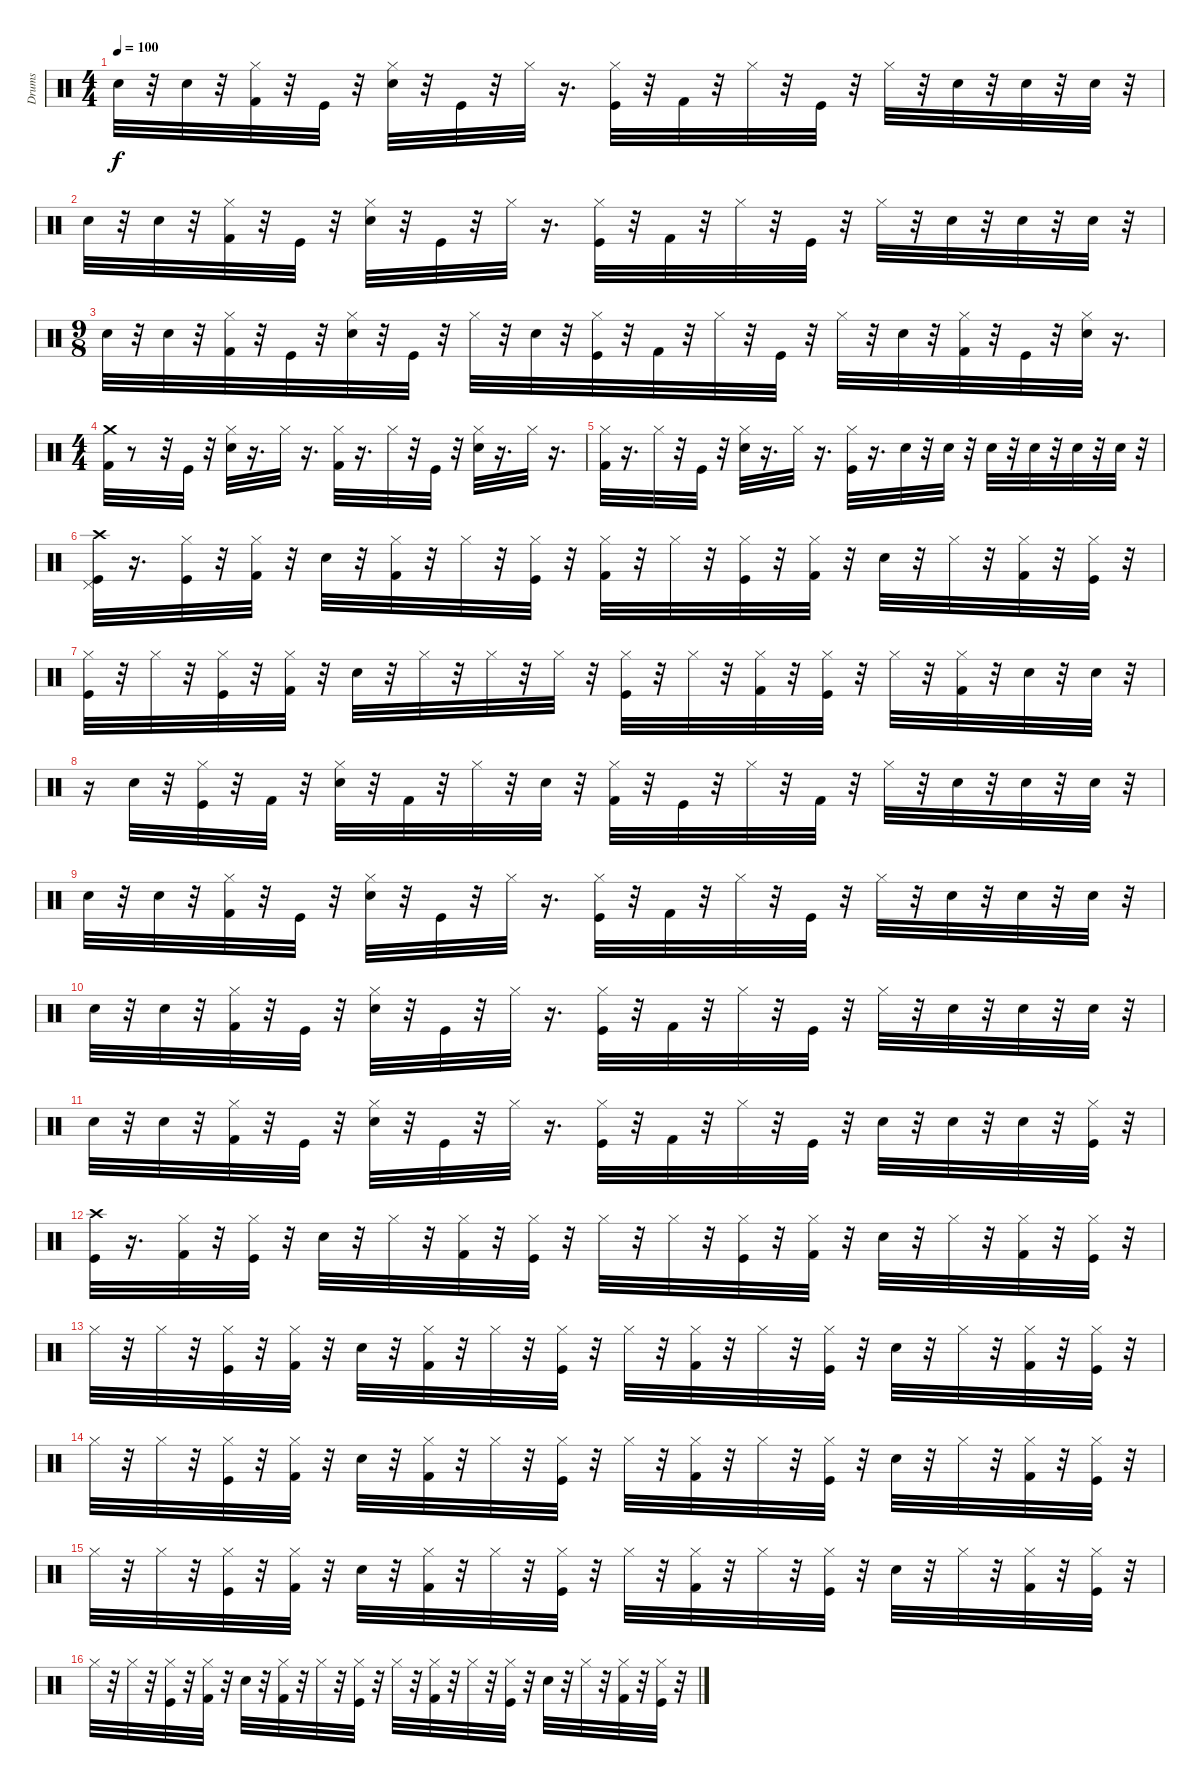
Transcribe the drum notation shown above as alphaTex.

\track ("Drums" "Drums") {instrument percussion}
\staff {score}
\articulation defaults
\ts (4 4)
\tempo 100
\clef neutral
\ks c "Snare (hit) 2".32{dy f}
r.32 "Snare (hit) 2".32 r.32 ("Kick (hit) 2" "Hi-Hat (closed)").32 r.32 "Kick (hit)".32 r.32 ("Electric Snare (hit)" "Hi-Hat (closed)").32 r.32 "Kick (hit)".32 r.32 "Hi-Hat (closed)".32 r.16{d} ("Kick (hit)" "Hi-Hat (closed)").32 r.32 "Kick (hit) 2".32 r.32 "Hi-Hat (closed)".32 r.32 "Kick (hit)".32 r.32 "Hi-Hat (closed)".32 r.32 "Electric Snare (hit)".32 r.32 "Electric Snare (hit)".32 r.32 "Electric Snare (hit)".32 r.32 |
"Snare (hit) 2".32 r.32 "Snare (hit) 2".32 r.32 ("Kick (hit) 2" "Hi-Hat (closed)").32 r.32 "Kick (hit)".32 r.32 ("Electric Snare (hit)" "Hi-Hat (closed)").32 r.32 "Kick (hit)".32 r.32 "Hi-Hat (closed)".32 r.16{d} ("Kick (hit)" "Hi-Hat (closed)").32 r.32 "Kick (hit) 2".32 r.32 "Hi-Hat (closed)".32 r.32 "Kick (hit)".32 r.32 "Hi-Hat (closed)".32 r.32 "Electric Snare (hit)".32 r.32 "Electric Snare (hit)".32 r.32 "Electric Snare (hit)".32 r.32 |
\ts (9 8)
"Snare (hit) 2".32 r.32 "Snare (hit) 2".32 r.32 ("Kick (hit) 2" "Hi-Hat (closed)").32 r.32 "Kick (hit)".32 r.32 ("Electric Snare (hit)" "Hi-Hat (closed)").32 r.32 "Kick (hit)".32 r.32 "Hi-Hat (closed)".32 r.32 "Electric Snare (hit)".32 r.32 ("Kick (hit)" "Hi-Hat (closed)").32 r.32 "Kick (hit) 2".32 r.32 "Hi-Hat (closed)".32 r.32 "Kick (hit)".32 r.32 "Hi-Hat (closed)".32 r.32 "Electric Snare (hit)".32 r.32 ("Hi-Hat (closed)" "Kick (hit) 2").32 r.32 "Kick (hit)".32 r.32 ("Hi-Hat (closed)" "Electric Snare (hit)").32 r.16{d} |
\ts (4 4)
("Kick (hit) 2" "Crash medium (hit)").32 r.8 r.32 "Kick (hit)".32 r.32 ("Electric Snare (hit)" "Hi-Hat (closed)").32 r.16{d} "Hi-Hat (closed)".32 r.16{d} ("Kick (hit) 2" "Hi-Hat (closed)").32 r.16{d} "Hi-Hat (closed)".32 r.32 "Kick (hit)".32 r.32 ("Electric Snare (hit)" "Hi-Hat (closed)").32 r.16{d} "Hi-Hat (closed)".32 r.16{d} |
("Hi-Hat (closed)" "Kick (hit) 2").32 r.16{d} "Hi-Hat (closed)".32 r.32 "Kick (hit)".32 r.32 ("Hi-Hat (closed)" "Electric Snare (hit)").32 r.16{d} "Hi-Hat (closed)".32 r.16{d} ("Hi-Hat (closed)" "Kick (hit)").32 r.16{d} "Electric Snare (hit)".32 r.32 "Electric Snare (hit)".32 r.32 "Electric Snare (hit)".32 r.32 "Electric Snare (hit)".32 r.32 "Electric Snare (hit)".32 r.32 "Electric Snare (hit)".32 r.32 |
("Kick (hit)" "Pedal Hi-Hat (hit)" "Crash high (hit)").32 r.16{d} ("Kick (hit)" "Hi-Hat (closed)").32 r.32 ("Kick (hit) 2" "Hi-Hat (closed)").32 r.32 "Electric Snare (hit)".32 r.32 ("Kick (hit) 2" "Hi-Hat (closed)").32 r.32 "Hi-Hat (closed)".32 r.32 ("Kick (hit)" "Hi-Hat (closed)").32 r.32 ("Kick (hit) 2" "Hi-Hat (closed)").32 r.32 "Hi-Hat (closed)".32 r.32 ("Kick (hit)" "Hi-Hat (closed)").32 r.32 ("Kick (hit) 2" "Hi-Hat (closed)").32 r.32 "Electric Snare (hit)".32 r.32 "Hi-Hat (closed)".32 r.32 ("Kick (hit) 2" "Hi-Hat (closed)").32 r.32 ("Kick (hit)" "Hi-Hat (closed)").32 r.32 |
("Hi-Hat (closed)" "Kick (hit)").32 r.32 "Hi-Hat (closed)".32 r.32 ("Hi-Hat (closed)" "Kick (hit)").32 r.32 ("Hi-Hat (closed)" "Kick (hit) 2").32 r.32 "Electric Snare (hit)".32 r.32 "Hi-Hat (closed)".32 r.32 "Hi-Hat (closed)".32 r.32 "Hi-Hat (closed)".32 r.32 ("Hi-Hat (closed)" "Kick (hit)").32 r.32 "Hi-Hat (closed)".32 r.32 ("Hi-Hat (closed)" "Kick (hit) 2").32 r.32 ("Hi-Hat (closed)" "Kick (hit)").32 r.32 "Hi-Hat (closed)".32 r.32 ("Hi-Hat (closed)" "Kick (hit) 2").32 r.32 "Electric Snare (hit)".32 r.32 "Electric Snare (hit)".32 r.32 |
r.16 "Electric Snare (hit)".32 r.32 ("Kick (hit)" "Hi-Hat (closed)").32 r.32 "Kick (hit) 2".32 r.32 ("Electric Snare (hit)" "Hi-Hat (closed)").32 r.32 "Kick (hit) 2".32 r.32 "Hi-Hat (closed)".32 r.32 "Electric Snare (hit)".32 r.32 ("Kick (hit) 2" "Hi-Hat (closed)").32 r.32 "Kick (hit)".32 r.32 "Hi-Hat (closed)".32 r.32 "Kick (hit) 2".32 r.32 "Hi-Hat (closed)".32 r.32 "Electric Snare (hit)".32 r.32 "Electric Snare (hit)".32 r.32 "Electric Snare (hit)".32 r.32 |
"Snare (hit) 2".32 r.32 "Snare (hit) 2".32 r.32 ("Kick (hit) 2" "Hi-Hat (closed)").32 r.32 "Kick (hit)".32 r.32 ("Electric Snare (hit)" "Hi-Hat (closed)").32 r.32 "Kick (hit)".32 r.32 "Hi-Hat (closed)".32 r.16{d} ("Kick (hit)" "Hi-Hat (closed)").32 r.32 "Kick (hit) 2".32 r.32 "Hi-Hat (closed)".32 r.32 "Kick (hit)".32 r.32 "Hi-Hat (closed)".32 r.32 "Electric Snare (hit)".32 r.32 "Electric Snare (hit)".32 r.32 "Electric Snare (hit)".32 r.32 |
"Snare (hit) 2".32 r.32 "Snare (hit) 2".32 r.32 ("Kick (hit) 2" "Hi-Hat (closed)").32 r.32 "Kick (hit)".32 r.32 ("Electric Snare (hit)" "Hi-Hat (closed)").32 r.32 "Kick (hit)".32 r.32 "Hi-Hat (closed)".32 r.16{d} ("Kick (hit)" "Hi-Hat (closed)").32 r.32 "Kick (hit) 2".32 r.32 "Hi-Hat (closed)".32 r.32 "Kick (hit)".32 r.32 "Hi-Hat (closed)".32 r.32 "Electric Snare (hit)".32 r.32 "Electric Snare (hit)".32 r.32 "Electric Snare (hit)".32 r.32 |
"Snare (hit) 2".32 r.32 "Snare (hit) 2".32 r.32 ("Kick (hit) 2" "Hi-Hat (closed)").32 r.32 "Kick (hit)".32 r.32 ("Electric Snare (hit)" "Hi-Hat (closed)").32 r.32 "Kick (hit)".32 r.32 "Hi-Hat (closed)".32 r.16{d} ("Kick (hit)" "Hi-Hat (closed)").32 r.32 "Kick (hit) 2".32 r.32 "Hi-Hat (closed)".32 r.32 "Kick (hit)".32 r.32 "Electric Snare (hit)".32 r.32 "Electric Snare (hit)".32 r.32 "Electric Snare (hit)".32 r.32 ("Hi-Hat (closed)" "Kick (hit)").32 r.32 |
("Kick (hit)" "Crash high (hit)").32 r.16{d} ("Kick (hit) 2" "Hi-Hat (closed)").32 r.32 ("Kick (hit)" "Hi-Hat (closed)").32 r.32 "Electric Snare (hit)".32 r.32 "Hi-Hat (closed)".32 r.32 ("Kick (hit) 2" "Hi-Hat (closed)").32 r.32 ("Kick (hit)" "Hi-Hat (closed)").32 r.32 "Hi-Hat (closed)".32 r.32 "Hi-Hat (closed)".32 r.32 ("Kick (hit)" "Hi-Hat (closed)").32 r.32 ("Kick (hit) 2" "Hi-Hat (closed)").32 r.32 "Electric Snare (hit)".32 r.32 "Hi-Hat (closed)".32 r.32 ("Kick (hit) 2" "Hi-Hat (closed)").32 r.32 ("Kick (hit)" "Hi-Hat (closed)").32 r.32 |
"Hi-Hat (closed)".32 r.32 "Hi-Hat (closed)".32 r.32 ("Hi-Hat (closed)" "Kick (hit)").32 r.32 ("Hi-Hat (closed)" "Kick (hit) 2").32 r.32 "Electric Snare (hit)".32 r.32 ("Hi-Hat (closed)" "Kick (hit) 2").32 r.32 "Hi-Hat (closed)".32 r.32 ("Hi-Hat (closed)" "Kick (hit)").32 r.32 "Hi-Hat (closed)".32 r.32 ("Hi-Hat (closed)" "Kick (hit) 2").32 r.32 "Hi-Hat (closed)".32 r.32 ("Hi-Hat (closed)" "Kick (hit)").32 r.32 "Electric Snare (hit)".32 r.32 "Hi-Hat (closed)".32 r.32 ("Hi-Hat (closed)" "Kick (hit) 2").32 r.32 ("Hi-Hat (closed)" "Kick (hit)").32 r.32 |
"Hi-Hat (closed)".32 r.32 "Hi-Hat (closed)".32 r.32 ("Hi-Hat (closed)" "Kick (hit)").32 r.32 ("Hi-Hat (closed)" "Kick (hit) 2").32 r.32 "Electric Snare (hit)".32 r.32 ("Hi-Hat (closed)" "Kick (hit) 2").32 r.32 "Hi-Hat (closed)".32 r.32 ("Hi-Hat (closed)" "Kick (hit)").32 r.32 "Hi-Hat (closed)".32 r.32 ("Hi-Hat (closed)" "Kick (hit) 2").32 r.32 "Hi-Hat (closed)".32 r.32 ("Hi-Hat (closed)" "Kick (hit)").32 r.32 "Electric Snare (hit)".32 r.32 "Hi-Hat (closed)".32 r.32 ("Hi-Hat (closed)" "Kick (hit) 2").32 r.32 ("Hi-Hat (closed)" "Kick (hit)").32 r.32 |
"Hi-Hat (closed)".32 r.32 "Hi-Hat (closed)".32 r.32 ("Hi-Hat (closed)" "Kick (hit)").32 r.32 ("Hi-Hat (closed)" "Kick (hit) 2").32 r.32 "Electric Snare (hit)".32 r.32 ("Hi-Hat (closed)" "Kick (hit) 2").32 r.32 "Hi-Hat (closed)".32 r.32 ("Hi-Hat (closed)" "Kick (hit)").32 r.32 "Hi-Hat (closed)".32 r.32 ("Hi-Hat (closed)" "Kick (hit) 2").32 r.32 "Hi-Hat (closed)".32 r.32 ("Hi-Hat (closed)" "Kick (hit)").32 r.32 "Electric Snare (hit)".32 r.32 "Hi-Hat (closed)".32 r.32 ("Hi-Hat (closed)" "Kick (hit) 2").32 r.32 ("Hi-Hat (closed)" "Kick (hit)").32 r.32 |
"Hi-Hat (closed)".32 r.32 "Hi-Hat (closed)".32 r.32 ("Hi-Hat (closed)" "Kick (hit)").32 r.32 ("Hi-Hat (closed)" "Kick (hit) 2").32 r.32 "Electric Snare (hit)".32 r.32 ("Hi-Hat (closed)" "Kick (hit) 2").32 r.32 "Hi-Hat (closed)".32 r.32 ("Hi-Hat (closed)" "Kick (hit)").32 r.32 "Hi-Hat (closed)".32 r.32 ("Hi-Hat (closed)" "Kick (hit) 2").32 r.32 "Hi-Hat (closed)".32 r.32 ("Hi-Hat (closed)" "Kick (hit)").32 r.32 "Electric Snare (hit)".32 r.32 "Hi-Hat (closed)".32 r.32 ("Hi-Hat (closed)" "Kick (hit) 2").32 r.32 ("Hi-Hat (closed)" "Kick (hit)").32 r.32
